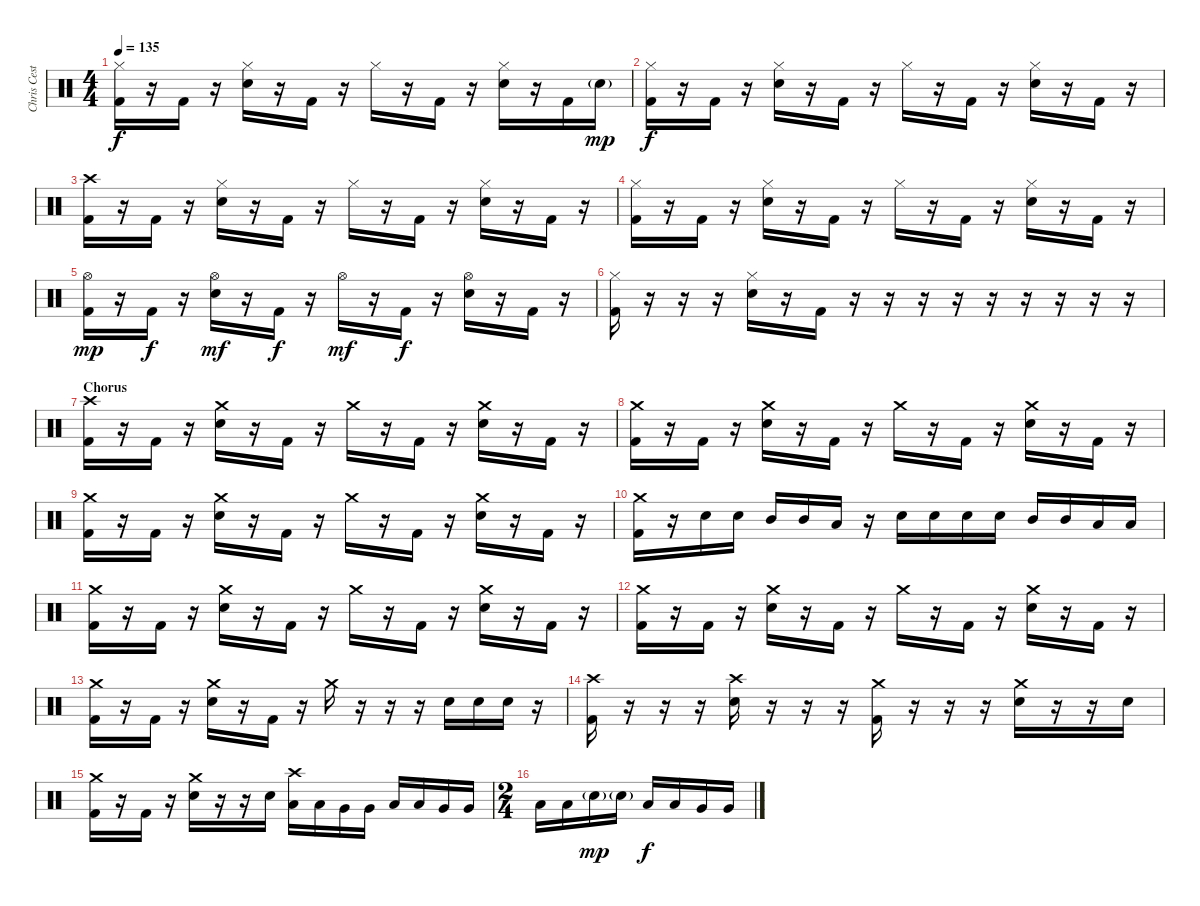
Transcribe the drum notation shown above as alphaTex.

\track ("Chris Cester - Drums" "Chris Cest") {instrument percussion}
\staff {score}
\articulation defaults
\ts (4 4)
\tempo 135
\clef neutral
\ks c
("Hi-Hat (closed)" "Kick (hit) 2").16{dy f} r.16 "Kick (hit) 2".16 r.16 ("Hi-Hat (closed)" "Electric Snare (hit)").16 r.16 "Kick (hit) 2".16 r.16 "Hi-Hat (closed)".16 r.16 "Kick (hit) 2".16 r.16 ("Hi-Hat (closed)" "Electric Snare (hit)").16 r.16 "Kick (hit) 2".16 "Electric Snare (hit)"{g}.16{dy mp} |
("Hi-Hat (closed)" "Kick (hit) 2").16{dy f} r.16 "Kick (hit) 2".16 r.16 ("Hi-Hat (closed)" "Electric Snare (hit)").16 r.16 "Kick (hit) 2".16 r.16 "Hi-Hat (closed)".16 r.16 "Kick (hit) 2".16 r.16 ("Hi-Hat (closed)" "Electric Snare (hit)").16 r.16 "Kick (hit) 2".16 r.16 |
("Crash high (hit)" "Kick (hit) 2").16 r.16 "Kick (hit) 2".16 r.16 ("Hi-Hat (closed)" "Electric Snare (hit)").16 r.16 "Kick (hit) 2".16 r.16 "Hi-Hat (closed)".16 r.16 "Kick (hit) 2".16 r.16 ("Hi-Hat (closed)" "Electric Snare (hit)").16 r.16 "Kick (hit) 2".16 r.16 |
("Hi-Hat (closed)" "Kick (hit) 2").16 r.16 "Kick (hit) 2".16 r.16 ("Hi-Hat (closed)" "Electric Snare (hit)").16 r.16 "Kick (hit) 2".16 r.16 "Hi-Hat (closed)".16 r.16 "Kick (hit) 2".16 r.16 ("Hi-Hat (closed)" "Electric Snare (hit)").16 r.16 "Kick (hit) 2".16 r.16 |
("Hi-Hat (open)" "Kick (hit) 2").16{dy mp} r.16 "Kick (hit) 2".16{dy f} r.16 ("Hi-Hat (open)" "Electric Snare (hit)").16{dy mf} r.16 "Kick (hit) 2".16{dy f} r.16 "Hi-Hat (open)".16{dy mf} r.16 "Kick (hit) 2".16{dy f} r.16 ("Hi-Hat (open)" "Electric Snare (hit)").16 r.16 "Kick (hit) 2".16 r.16 |
("Hi-Hat (closed)" "Kick (hit) 2").16 r.16 r.16 r.16 ("Hi-Hat (closed)" "Electric Snare (hit)").16 r.16 "Kick (hit) 2".16 r.16 r.16 r.16 r.16 r.16 r.16 r.16 r.16 r.16 |
\section ("" "Chorus")
("Crash high (hit)" "Kick (hit) 2").16 r.16 "Kick (hit) 2".16 r.16 ("Crash medium (hit)" "Electric Snare (hit)").16 r.16 "Kick (hit) 2".16 r.16 "Crash medium (hit)".16 r.16 "Kick (hit) 2".16 r.16 ("Crash medium (hit)" "Electric Snare (hit)").16 r.16 "Kick (hit) 2".16 r.16 |
("Crash medium (hit)" "Kick (hit) 2").16 r.16 "Kick (hit) 2".16 r.16 ("Crash medium (hit)" "Electric Snare (hit)").16 r.16 "Kick (hit) 2".16 r.16 "Crash medium (hit)".16 r.16 "Kick (hit) 2".16 r.16 ("Crash medium (hit)" "Electric Snare (hit)").16 r.16 "Kick (hit) 2".16 r.16 |
("Crash medium (hit)" "Kick (hit) 2").16 r.16 "Kick (hit) 2".16 r.16 ("Crash medium (hit)" "Electric Snare (hit)").16 r.16 "Kick (hit) 2".16 r.16 "Crash medium (hit)".16 r.16 "Kick (hit) 2".16 r.16 ("Crash medium (hit)" "Electric Snare (hit)").16 r.16 "Kick (hit) 2".16 r.16 |
("Crash medium (hit)" "Kick (hit) 2").16 r.16 "Electric Snare (hit)".16 "Electric Snare (hit)".16 "Mid Tom (hit)".16 "Mid Tom (hit)".16 "Low Tom (hit)".16 r.16 "Electric Snare (hit)".16 "Electric Snare (hit)".16 "Electric Snare (hit)".16 "Electric Snare (hit)".16 "Mid Tom (hit)".16 "Mid Tom (hit)".16 "Low Tom (hit)".16 "Low Tom (hit)".16 |
("Crash medium (hit)" "Kick (hit) 2").16 r.16 "Kick (hit) 2".16 r.16 ("Crash medium (hit)" "Electric Snare (hit)").16 r.16 "Kick (hit) 2".16 r.16 "Crash medium (hit)".16 r.16 "Kick (hit) 2".16 r.16 ("Crash medium (hit)" "Electric Snare (hit)").16 r.16 "Kick (hit) 2".16 r.16 |
("Crash medium (hit)" "Kick (hit) 2").16 r.16 "Kick (hit) 2".16 r.16 ("Crash medium (hit)" "Electric Snare (hit)").16 r.16 "Kick (hit) 2".16 r.16 "Crash medium (hit)".16 r.16 "Kick (hit) 2".16 r.16 ("Crash medium (hit)" "Electric Snare (hit)").16 r.16 "Kick (hit) 2".16 r.16 |
("Crash medium (hit)" "Kick (hit) 2").16 r.16 "Kick (hit) 2".16 r.16 ("Crash medium (hit)" "Electric Snare (hit)").16 r.16 "Kick (hit) 2".16 r.16 "Crash medium (hit)".16 r.16 r.16 r.16 "Electric Snare (hit)".16 "Electric Snare (hit)".16 "Electric Snare (hit)".16 r.16 |
("Crash high (hit)" "Kick (hit) 2").16 r.16 r.16 r.16 ("Crash high (hit)" "Electric Snare (hit)").16 r.16 r.16 r.16 ("Crash medium (hit)" "Kick (hit) 2").16 r.16 r.16 r.16 ("Crash medium (hit)" "Electric Snare (hit)").16 r.16 r.16 "Electric Snare (hit)".16 |
("Crash medium (hit)" "Kick (hit) 2").16 r.16 "Kick (hit) 2".16 r.16 ("Crash medium (hit)" "Electric Snare (hit)").16 r.16 r.16 "Electric Snare (hit)".16 ("Crash high (hit)" "Low Tom (hit)").16 "Low Tom (hit)".16 "Very Low Tom (hit)".16 "Very Low Tom (hit)".16 "Low Tom (hit)".16 "Low Tom (hit)".16 "Very Low Tom (hit)".16 "Very Low Tom (hit)".16 |
\ts (2 4)
"Low Tom (hit)".16 "Low Tom (hit)".16 "Electric Snare (hit)"{g}.16{dy mp} "Electric Snare (hit)"{g}.16 "Low Tom (hit)".16{dy f} "Low Tom (hit)".16 "Very Low Tom (hit)".16 "Very Low Tom (hit)".16
